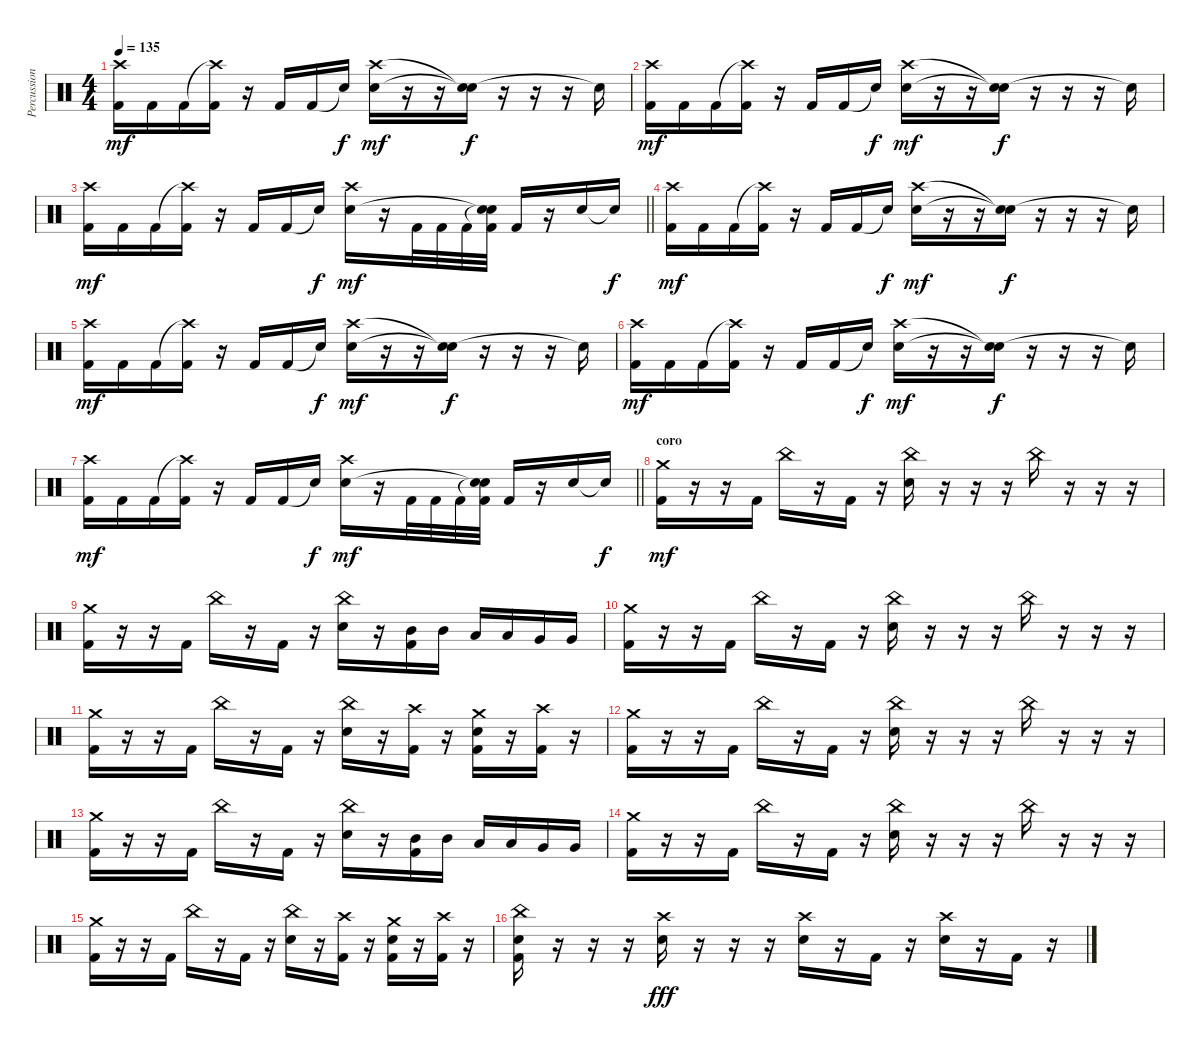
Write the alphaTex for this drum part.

\track ("Percussion" "Percussion") {instrument percussion bank 255}
\staff {score}
\articulation defaults
\ts (4 4)
\tempo 135
\clef neutral
\ks c
("Crash high (hit)" "Kick (hit) 2").16{dy mf} "Kick (hit) 2".16 "Kick (hit) 2".16 ("Crash high (hit)"{t} "Kick (hit) 2").16 r.16 "Kick (hit) 2".16 "Kick (hit) 2".16 "Snare (hit)"{t}.16{dy f} ("Crash high (hit)" "Electric Snare (hit)").16{dy mf} r.16 r.16 ("Snare (hit)"{t} "Snare (hit)"{t}).16{dy f} r.16 r.16 r.16 "Snare (hit)"{t}.16 |
("Crash high (hit)" "Kick (hit) 2").16{dy mf} "Kick (hit) 2".16 "Kick (hit) 2".16 ("Crash high (hit)"{t} "Kick (hit) 2").16 r.16 "Kick (hit) 2".16 "Kick (hit) 2".16 "Snare (hit)"{t}.16{dy f} ("Crash high (hit)" "Electric Snare (hit)").16{dy mf} r.16 r.16 ("Snare (hit)"{t} "Snare (hit)"{t}).16{dy f} r.16 r.16 r.16 "Snare (hit)"{t}.16 |
\barLineRight lightlight
("Crash high (hit)" "Kick (hit) 2").16{dy mf} "Kick (hit) 2".16 "Kick (hit) 2".16 ("Crash high (hit)"{t} "Kick (hit) 2").16 r.16 "Kick (hit) 2".16 "Kick (hit) 2".16 "Snare (hit)"{t}.16{dy f} ("Crash high (hit)" "Electric Snare (hit)").16{dy mf} r.16 "Kick (hit) 2".32 "Kick (hit) 2".32 "Kick (hit) 2".32 ("Snare (hit)"{t} "Snare (hit)"{t} "Kick (hit) 2").32 "Kick (hit) 2".16 r.16 "Electric Snare (hit)".16 "Snare (hit)"{t}.16{dy f} |
("Crash high (hit)" "Kick (hit) 2").16{dy mf} "Kick (hit) 2".16 "Kick (hit) 2".16 ("Crash high (hit)"{t} "Kick (hit) 2").16 r.16 "Kick (hit) 2".16 "Kick (hit) 2".16 "Snare (hit)"{t}.16{dy f} ("Crash high (hit)" "Electric Snare (hit)").16{dy mf} r.16 r.16 ("Snare (hit)"{t} "Snare (hit)"{t}).16{dy f} r.16 r.16 r.16 "Snare (hit)"{t}.16 |
("Crash high (hit)" "Kick (hit) 2").16{dy mf} "Kick (hit) 2".16 "Kick (hit) 2".16 ("Crash high (hit)"{t} "Kick (hit) 2").16 r.16 "Kick (hit) 2".16 "Kick (hit) 2".16 "Snare (hit)"{t}.16{dy f} ("Crash high (hit)" "Electric Snare (hit)").16{dy mf} r.16 r.16 ("Snare (hit)"{t} "Snare (hit)"{t}).16{dy f} r.16 r.16 r.16 "Snare (hit)"{t}.16 |
("Crash high (hit)" "Kick (hit) 2").16{dy mf} "Kick (hit) 2".16 "Kick (hit) 2".16 ("Crash high (hit)"{t} "Kick (hit) 2").16 r.16 "Kick (hit) 2".16 "Kick (hit) 2".16 "Snare (hit)"{t}.16{dy f} ("Crash high (hit)" "Electric Snare (hit)").16{dy mf} r.16 r.16 ("Snare (hit)"{t} "Snare (hit)"{t}).16{dy f} r.16 r.16 r.16 "Snare (hit)"{t}.16 |
\barLineRight lightlight
("Crash high (hit)" "Kick (hit) 2").16{dy mf} "Kick (hit) 2".16 "Kick (hit) 2".16 ("Crash high (hit)"{t} "Kick (hit) 2").16 r.16 "Kick (hit) 2".16 "Kick (hit) 2".16 "Snare (hit)"{t}.16{dy f} ("Crash high (hit)" "Electric Snare (hit)").16{dy mf} r.16 "Kick (hit) 2".32 "Kick (hit) 2".32 "Kick (hit) 2".32 ("Snare (hit)"{t} "Snare (hit)"{t} "Kick (hit) 2").32 "Kick (hit) 2".16 r.16 "Electric Snare (hit)".16 "Snare (hit)"{t}.16{dy f} |
\section ("" "coro")
("Crash medium (hit)" "Kick (hit) 2").16{dy mf} r.16 r.16 "Kick (hit) 2".16 "China (hit)".16 r.16 "Kick (hit) 2".16 r.16 ("China (hit)" "Electric Snare (hit)").16 r.16 r.16 r.16 "China (hit)".16 r.16 r.16 r.16 |
("Crash medium (hit)" "Kick (hit) 2").16 r.16 r.16 "Kick (hit) 2".16 "China (hit)".16 r.16 "Kick (hit) 2".16 r.16 ("China (hit)" "Electric Snare (hit)").16 r.16 ("Mid Tom (hit)" "Kick (hit) 2").16 "Mid Tom (hit)".16 "Low Tom (hit)".16 "Low Tom (hit)".16 "Very Low Tom (hit)".16 "Very Low Tom (hit)".16 |
("Crash medium (hit)" "Kick (hit) 2").16 r.16 r.16 "Kick (hit) 2".16 "China (hit)".16 r.16 "Kick (hit) 2".16 r.16 ("China (hit)" "Electric Snare (hit)").16 r.16 r.16 r.16 "China (hit)".16 r.16 r.16 r.16 |
("Crash medium (hit)" "Kick (hit) 2").16 r.16 r.16 "Kick (hit) 2".16 "China (hit)".16 r.16 "Kick (hit) 2".16 r.16 ("China (hit)" "Electric Snare (hit)").16 r.16 ("Crash high (hit)" "Kick (hit) 2").16 r.16 ("Crash medium (hit)" "Electric Snare (hit)" "Kick (hit) 2").16 r.16 ("Crash high (hit)" "Kick (hit) 2").16 r.16 |
("Crash medium (hit)" "Kick (hit) 2").16 r.16 r.16 "Kick (hit) 2".16 "China (hit)".16 r.16 "Kick (hit) 2".16 r.16 ("China (hit)" "Electric Snare (hit)").16 r.16 r.16 r.16 "China (hit)".16 r.16 r.16 r.16 |
("Crash medium (hit)" "Kick (hit) 2").16 r.16 r.16 "Kick (hit) 2".16 "China (hit)".16 r.16 "Kick (hit) 2".16 r.16 ("China (hit)" "Electric Snare (hit)").16 r.16 ("Mid Tom (hit)" "Kick (hit) 2").16 "Mid Tom (hit)".16 "Low Tom (hit)".16 "Low Tom (hit)".16 "Very Low Tom (hit)".16 "Very Low Tom (hit)".16 |
("Crash medium (hit)" "Kick (hit) 2").16 r.16 r.16 "Kick (hit) 2".16 "China (hit)".16 r.16 "Kick (hit) 2".16 r.16 ("China (hit)" "Electric Snare (hit)").16 r.16 r.16 r.16 "China (hit)".16 r.16 r.16 r.16 |
("Crash medium (hit)" "Kick (hit) 2").16 r.16 r.16 "Kick (hit) 2".16 "China (hit)".16 r.16 "Kick (hit) 2".16 r.16 ("China (hit)" "Electric Snare (hit)").16 r.16 ("Crash high (hit)" "Kick (hit) 2").16 r.16 ("Crash medium (hit)" "Electric Snare (hit)" "Kick (hit) 2").16 r.16 ("Crash high (hit)" "Kick (hit) 2").16 r.16 |
("China (hit)" "Electric Snare (hit)" "Kick (hit) 2").16 r.16 r.16 r.16 ("Crash high (hit)" "Electric Snare (hit)").16{dy fff} r.16 r.16 r.16 ("Crash high (hit)" "Electric Snare (hit)").16 r.16 "Kick (hit) 2".16 r.16 ("Crash high (hit)" "Electric Snare (hit)").16 r.16 "Kick (hit) 2".16 r.16
